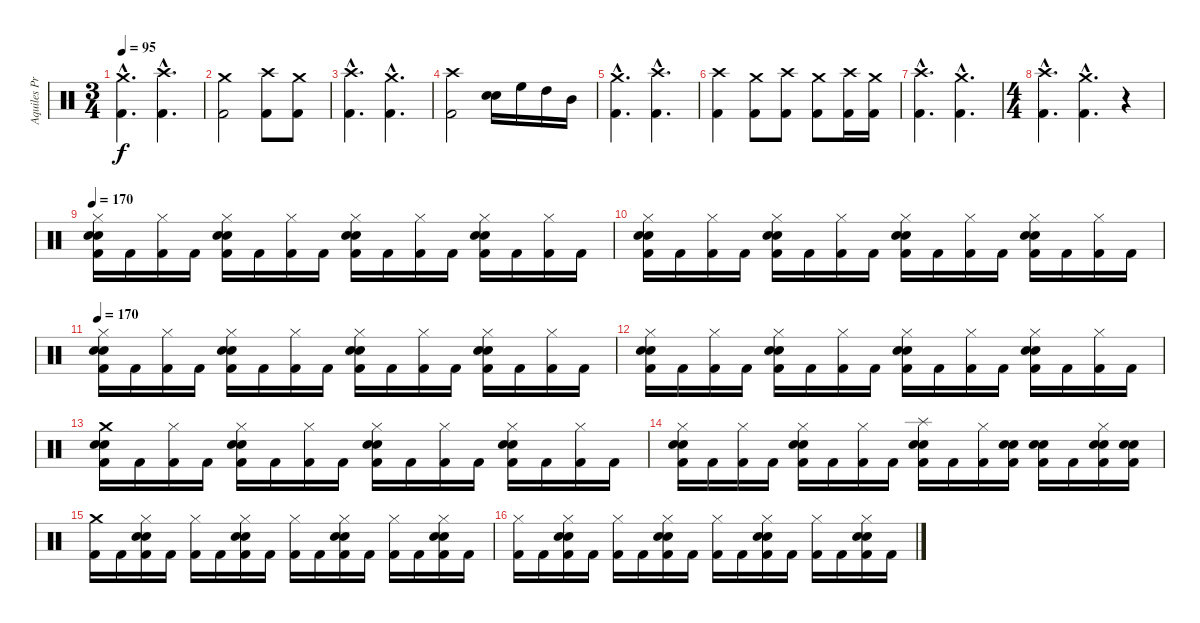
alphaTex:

\track ("Aquiles Priester" "Aquiles Pr") {instrument percussion}
\staff {score}
\articulation defaults
\ts (3 4)
\tempo 95
\clef neutral
\ks c
("Crash medium (hit)"{hac} "Kick (hit) 2"{hac}).4{d dy f} ("Crash high (hit)"{hac} "Kick (hit) 2"{hac}).4{d} |
("Crash medium (hit)" "Kick (hit) 2").2 ("Crash high (hit)" "Kick (hit) 2").8 ("Crash medium (hit)" "Kick (hit) 2").8 |
("Crash high (hit)"{hac} "Kick (hit) 2"{hac}).4{d} ("Crash medium (hit)"{hac} "Kick (hit) 2"{hac}).4{d} |
("Crash high (hit)" "Kick (hit) 2").2 ("Electric Snare (hit)" "Snare (hit) 2").16 "High Floor Tom (hit)".16 "High Tom (hit)".16 "Mid Tom (hit)".16 |
("Crash medium (hit)"{hac} "Kick (hit) 2"{hac}).4{d} ("Crash high (hit)"{hac} "Kick (hit) 2"{hac}).4{d} |
("Crash high (hit)" "Kick (hit) 2").4 ("Crash medium (hit)" "Kick (hit) 2").8 ("Crash high (hit)" "Kick (hit) 2").8 ("Crash medium (hit)" "Kick (hit) 2").8 ("Crash high (hit)" "Kick (hit) 2").16 ("Crash medium (hit)" "Kick (hit) 2").16 |
("Crash high (hit)"{hac} "Kick (hit) 2"{hac}).4{d} ("Crash medium (hit)"{hac} "Kick (hit) 2"{hac}).4{d} |
\ts (4 4)
("Crash high (hit)"{hac} "Kick (hit) 2"{hac}).4{d} ("Crash medium (hit)"{hac} "Kick (hit) 2"{hac}).4{d} r.4 |
\tempo 170
("Hi-Hat (closed)" "Electric Snare (hit)" "Snare (hit) 2" "Kick (hit) 2").16 "Kick (hit) 2".16 ("Hi-Hat (closed)" "Kick (hit) 2").16 "Kick (hit) 2".16 ("Hi-Hat (closed)" "Electric Snare (hit)" "Snare (hit) 2" "Kick (hit) 2").16 "Kick (hit) 2".16 ("Hi-Hat (closed)" "Kick (hit) 2").16 "Kick (hit) 2".16 ("Hi-Hat (closed)" "Electric Snare (hit)" "Snare (hit) 2" "Kick (hit) 2").16 "Kick (hit) 2".16 ("Hi-Hat (closed)" "Kick (hit) 2").16 "Kick (hit) 2".16 ("Hi-Hat (closed)" "Electric Snare (hit)" "Snare (hit) 2" "Kick (hit) 2").16 "Kick (hit) 2".16 ("Hi-Hat (closed)" "Kick (hit) 2").16 "Kick (hit) 2".16 |
("Hi-Hat (closed)" "Electric Snare (hit)" "Snare (hit) 2" "Kick (hit) 2").16 "Kick (hit) 2".16 ("Hi-Hat (closed)" "Kick (hit) 2").16 "Kick (hit) 2".16 ("Hi-Hat (closed)" "Electric Snare (hit)" "Snare (hit) 2" "Kick (hit) 2").16 "Kick (hit) 2".16 ("Hi-Hat (closed)" "Kick (hit) 2").16 "Kick (hit) 2".16 ("Hi-Hat (closed)" "Electric Snare (hit)" "Snare (hit) 2" "Kick (hit) 2").16 "Kick (hit) 2".16 ("Hi-Hat (closed)" "Kick (hit) 2").16 "Kick (hit) 2".16 ("Hi-Hat (closed)" "Electric Snare (hit)" "Snare (hit) 2" "Kick (hit) 2").16 "Kick (hit) 2".16 ("Hi-Hat (closed)" "Kick (hit) 2").16 "Kick (hit) 2".16 |
\tempo 170
("Hi-Hat (closed)" "Electric Snare (hit)" "Snare (hit) 2" "Kick (hit) 2").16 "Kick (hit) 2".16 ("Hi-Hat (closed)" "Kick (hit) 2").16 "Kick (hit) 2".16 ("Hi-Hat (closed)" "Electric Snare (hit)" "Snare (hit) 2" "Kick (hit) 2").16 "Kick (hit) 2".16 ("Hi-Hat (closed)" "Kick (hit) 2").16 "Kick (hit) 2".16 ("Hi-Hat (closed)" "Electric Snare (hit)" "Snare (hit) 2" "Kick (hit) 2").16 "Kick (hit) 2".16 ("Hi-Hat (closed)" "Kick (hit) 2").16 "Kick (hit) 2".16 ("Hi-Hat (closed)" "Electric Snare (hit)" "Snare (hit) 2" "Kick (hit) 2").16 "Kick (hit) 2".16 ("Hi-Hat (closed)" "Kick (hit) 2").16 "Kick (hit) 2".16 |
("Hi-Hat (closed)" "Electric Snare (hit)" "Snare (hit) 2" "Kick (hit) 2").16 "Kick (hit) 2".16 ("Hi-Hat (closed)" "Kick (hit) 2").16 "Kick (hit) 2".16 ("Hi-Hat (closed)" "Electric Snare (hit)" "Snare (hit) 2" "Kick (hit) 2").16 "Kick (hit) 2".16 ("Hi-Hat (closed)" "Kick (hit) 2").16 "Kick (hit) 2".16 ("Hi-Hat (closed)" "Electric Snare (hit)" "Snare (hit) 2" "Kick (hit) 2").16 "Kick (hit) 2".16 ("Hi-Hat (closed)" "Kick (hit) 2").16 "Kick (hit) 2".16 ("Hi-Hat (closed)" "Electric Snare (hit)" "Snare (hit) 2" "Kick (hit) 2").16 "Kick (hit) 2".16 ("Hi-Hat (closed)" "Kick (hit) 2").16 "Kick (hit) 2".16 |
("Crash medium (hit)" "Electric Snare (hit)" "Snare (hit) 2" "Kick (hit) 2").16 "Kick (hit) 2".16 ("Hi-Hat (closed)" "Kick (hit) 2").16 "Kick (hit) 2".16 ("Hi-Hat (closed)" "Electric Snare (hit)" "Snare (hit) 2" "Kick (hit) 2").16 "Kick (hit) 2".16 ("Hi-Hat (closed)" "Kick (hit) 2").16 "Kick (hit) 2".16 ("Hi-Hat (closed)" "Electric Snare (hit)" "Snare (hit) 2" "Kick (hit) 2").16 "Kick (hit) 2".16 ("Hi-Hat (closed)" "Kick (hit) 2").16 "Kick (hit) 2".16 ("Hi-Hat (closed)" "Electric Snare (hit)" "Snare (hit) 2" "Kick (hit) 2").16 "Kick (hit) 2".16 ("Hi-Hat (closed)" "Kick (hit) 2").16 "Kick (hit) 2".16 |
("Hi-Hat (closed)" "Electric Snare (hit)" "Snare (hit) 2" "Kick (hit) 2").16 "Kick (hit) 2".16 ("Hi-Hat (closed)" "Kick (hit) 2").16 "Kick (hit) 2".16 ("Hi-Hat (closed)" "Electric Snare (hit)" "Snare (hit) 2" "Kick (hit) 2").16 "Kick (hit) 2".16 ("Hi-Hat (closed)" "Kick (hit) 2").16 "Kick (hit) 2".16 ("Splash (hit)" "Electric Snare (hit)" "Snare (hit) 2" "Kick (hit) 2").16 "Kick (hit) 2".16 ("Hi-Hat (closed)" "Kick (hit) 2").16 ("Electric Snare (hit)" "Snare (hit) 2" "Kick (hit) 2").16 ("Electric Snare (hit)" "Snare (hit) 2" "Kick (hit) 2").16 "Kick (hit) 2".16 ("Hi-Hat (closed)" "Electric Snare (hit)" "Snare (hit) 2" "Kick (hit) 2").16 ("Electric Snare (hit)" "Snare (hit) 2" "Kick (hit) 2").16 |
("Crash medium (hit)" "Kick (hit) 2").16 "Kick (hit) 2".16 ("Hi-Hat (closed)" "Electric Snare (hit)" "Snare (hit) 2" "Kick (hit) 2").16 "Kick (hit) 2".16 ("Hi-Hat (closed)" "Kick (hit) 2").16 "Kick (hit) 2".16 ("Hi-Hat (closed)" "Electric Snare (hit)" "Snare (hit) 2" "Kick (hit) 2").16 "Kick (hit) 2".16 ("Hi-Hat (closed)" "Kick (hit) 2").16 "Kick (hit) 2".16 ("Hi-Hat (closed)" "Electric Snare (hit)" "Snare (hit) 2" "Kick (hit) 2").16 "Kick (hit) 2".16 ("Hi-Hat (closed)" "Kick (hit) 2").16 "Kick (hit) 2".16 ("Hi-Hat (closed)" "Electric Snare (hit)" "Snare (hit) 2" "Kick (hit) 2").16 "Kick (hit) 2".16 |
("Hi-Hat (closed)" "Kick (hit) 2").16 "Kick (hit) 2".16 ("Hi-Hat (closed)" "Electric Snare (hit)" "Snare (hit) 2" "Kick (hit) 2").16 "Kick (hit) 2".16 ("Hi-Hat (closed)" "Kick (hit) 2").16 "Kick (hit) 2".16 ("Hi-Hat (closed)" "Electric Snare (hit)" "Snare (hit) 2" "Kick (hit) 2").16 "Kick (hit) 2".16 ("Hi-Hat (closed)" "Kick (hit) 2").16 "Kick (hit) 2".16 ("Hi-Hat (closed)" "Electric Snare (hit)" "Snare (hit) 2" "Kick (hit) 2").16 "Kick (hit) 2".16 ("Hi-Hat (closed)" "Kick (hit) 2").16 "Kick (hit) 2".16 ("Hi-Hat (closed)" "Electric Snare (hit)" "Snare (hit) 2" "Kick (hit) 2").16 "Kick (hit) 2".16
